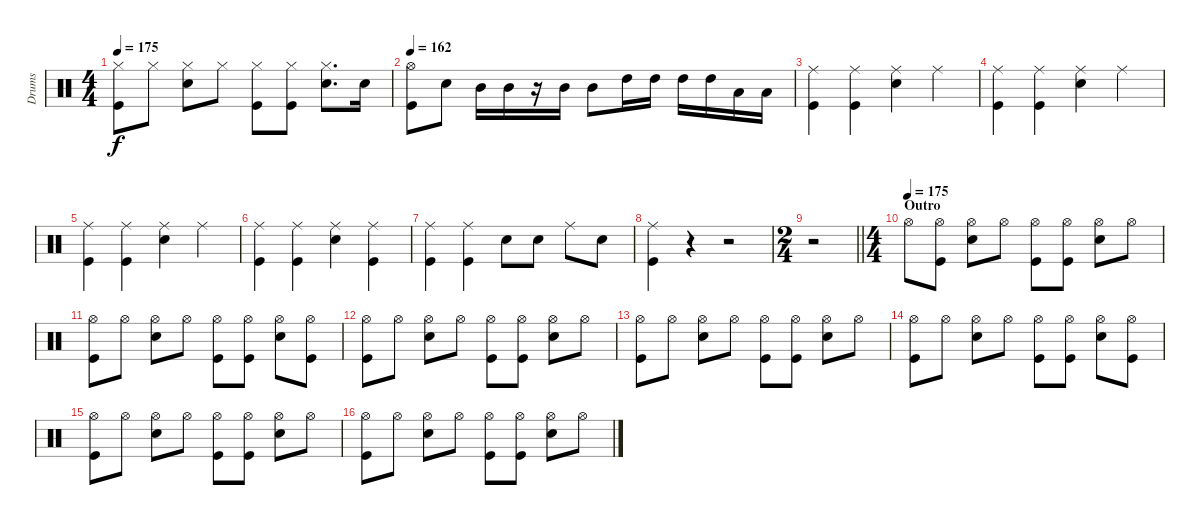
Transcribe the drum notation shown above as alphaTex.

\track ("Drums" "Drums") {instrument percussion}
\staff {score}
\articulation defaults
\ts (4 4)
\tempo 175
\clef neutral
\ks c
("Hi-Hat (closed)" "Kick (hit)").8{dy f} "Hi-Hat (closed)".8 ("Hi-Hat (closed)" "Snare (hit) 2").8 "Hi-Hat (closed)".8 ("Hi-Hat (closed)" "Kick (hit)").8 ("Hi-Hat (closed)" "Kick (hit)").8 ("Hi-Hat (closed)" "Snare (hit) 2").8{d} "Snare (hit) 2".16 |
\tempo 162
("Hi-Hat (open)" "Kick (hit)").8 "Snare (hit) 2".8 "Mid Tom (hit)".16 "Mid Tom (hit)".16 r.16 "Mid Tom (hit)".16 "Mid Tom (hit)".8 "High Tom (hit)".16 "High Tom (hit)".16 "High Tom (hit)".16 "High Tom (hit)".16 "Low Tom (hit)".16 "Low Tom (hit)".16 |
("Ride (middle)" "Kick (hit)").4 ("Ride (middle)" "Kick (hit)").4 ("Ride (middle)" "Snare (hit) 2").4 "Ride (middle)".4 |
("Ride (middle)" "Kick (hit)").4 ("Ride (middle)" "Kick (hit)").4 ("Ride (middle)" "Snare (hit) 2").4 "Ride (middle)".4 |
("Ride (middle)" "Kick (hit)").4 ("Ride (middle)" "Kick (hit)").4 ("Ride (middle)" "Snare (hit) 2").4 "Ride (middle)".4 |
("Ride (middle)" "Kick (hit)").4 ("Ride (middle)" "Kick (hit)").4 ("Ride (middle)" "Snare (hit) 2").4 ("Ride (middle)" "Kick (hit)").4 |
("Ride (middle)" "Kick (hit)").4 ("Ride (middle)" "Kick (hit)").4 "Snare (hit) 2".8 "Snare (hit) 2".8 "Ride (middle)".8 "Snare (hit) 2".8 |
("Ride (middle)" "Kick (hit)").4 r.4 r.2 |
\ts (2 4)
\barLineRight lightlight
r.2 |
\ts (4 4)
\section ("" "Outro")
\tempo (175)
"Hi-Hat (open)".8 ("Hi-Hat (open)" "Kick (hit)").8 ("Hi-Hat (open)" "Snare (hit) 2").8 "Hi-Hat (open)".8 ("Hi-Hat (open)" "Kick (hit)").8 ("Hi-Hat (open)" "Kick (hit)").8 ("Hi-Hat (open)" "Snare (hit) 2").8 "Hi-Hat (open)".8 |
("Hi-Hat (open)" "Kick (hit)").8 "Hi-Hat (open)".8 ("Hi-Hat (open)" "Snare (hit) 2").8 "Hi-Hat (open)".8 ("Hi-Hat (open)" "Kick (hit)").8 ("Hi-Hat (open)" "Kick (hit)").8 ("Hi-Hat (open)" "Snare (hit) 2").8 ("Hi-Hat (open)" "Kick (hit)").8 |
("Hi-Hat (open)" "Kick (hit)").8 "Hi-Hat (open)".8 ("Hi-Hat (open)" "Snare (hit) 2").8 "Hi-Hat (open)".8 ("Hi-Hat (open)" "Kick (hit)").8 ("Hi-Hat (open)" "Kick (hit)").8 ("Hi-Hat (open)" "Snare (hit) 2").8 "Hi-Hat (open)".8 |
("Hi-Hat (open)" "Kick (hit)").8 "Hi-Hat (open)".8 ("Hi-Hat (open)" "Snare (hit) 2").8 "Hi-Hat (open)".8 ("Hi-Hat (open)" "Kick (hit)").8 ("Hi-Hat (open)" "Kick (hit)").8 ("Hi-Hat (open)" "Snare (hit) 2").8 "Hi-Hat (open)".8 |
("Hi-Hat (open)" "Kick (hit)").8 "Hi-Hat (open)".8 ("Hi-Hat (open)" "Snare (hit) 2").8 "Hi-Hat (open)".8 ("Hi-Hat (open)" "Kick (hit)").8 ("Hi-Hat (open)" "Kick (hit)").8 ("Hi-Hat (open)" "Snare (hit) 2").8 ("Hi-Hat (open)" "Kick (hit)").8 |
("Hi-Hat (open)" "Kick (hit)").8 "Hi-Hat (open)".8 ("Hi-Hat (open)" "Snare (hit) 2").8 "Hi-Hat (open)".8 ("Hi-Hat (open)" "Kick (hit)").8 ("Hi-Hat (open)" "Kick (hit)").8 ("Hi-Hat (open)" "Snare (hit) 2").8 "Hi-Hat (open)".8 |
("Hi-Hat (open)" "Kick (hit)").8 "Hi-Hat (open)".8 ("Hi-Hat (open)" "Snare (hit) 2").8 "Hi-Hat (open)".8 ("Hi-Hat (open)" "Kick (hit)").8 ("Hi-Hat (open)" "Kick (hit)").8 ("Hi-Hat (open)" "Snare (hit) 2").8 "Hi-Hat (open)".8
